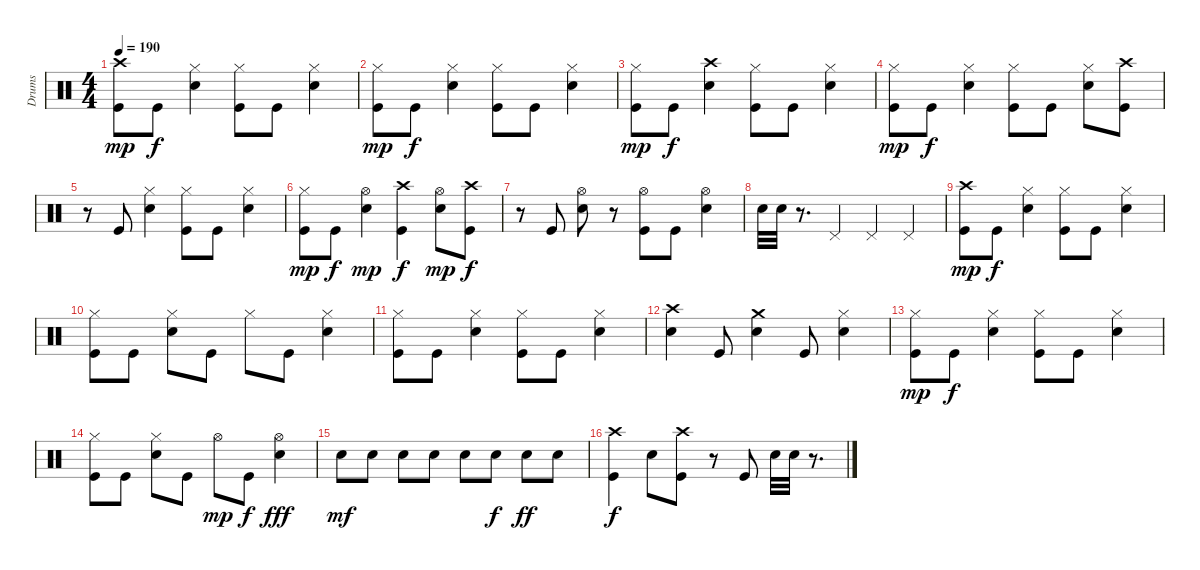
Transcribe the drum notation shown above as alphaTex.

\track ("Drums" "Drums") {instrument percussion}
\staff {score}
\articulation defaults
\ts (4 4)
\tempo 190
\clef neutral
\ks c
("Crash high (hit)" "Kick (hit)").8{dy mp} "Kick (hit)".8{dy f} ("Hi-Hat (closed)" "Snare (hit) 2").4 ("Hi-Hat (closed)" "Kick (hit)").8 "Kick (hit)".8 ("Hi-Hat (closed)" "Snare (hit) 2").4 |
("Hi-Hat (closed)" "Kick (hit)").8{dy mp} "Kick (hit)".8{dy f} ("Hi-Hat (closed)" "Snare (hit) 2").4 ("Hi-Hat (closed)" "Kick (hit)").8 "Kick (hit)".8 ("Hi-Hat (closed)" "Snare (hit) 2").4 |
("Hi-Hat (closed)" "Kick (hit)").8{dy mp} "Kick (hit)".8{dy f} ("Crash high (hit)" "Snare (hit) 2").4 ("Hi-Hat (closed)" "Kick (hit)").8 "Kick (hit)".8 ("Hi-Hat (closed)" "Snare (hit) 2").4 |
("Hi-Hat (closed)" "Kick (hit)").8{dy mp} "Kick (hit)".8{dy f} ("Hi-Hat (closed)" "Snare (hit) 2").4 ("Hi-Hat (closed)" "Kick (hit)").8 "Kick (hit)".8 ("Hi-Hat (closed)" "Snare (hit) 2").8 ("Crash high (hit)" "Kick (hit)").8 |
r.8 "Kick (hit)".8 ("Hi-Hat (closed)" "Snare (hit) 2").4 ("Hi-Hat (closed)" "Kick (hit)").8 "Kick (hit)".8 ("Hi-Hat (closed)" "Snare (hit) 2").4 |
("Hi-Hat (closed)" "Kick (hit)").8{dy mp} "Kick (hit)".8{dy f} ("Hi-Hat (open)" "Snare (hit) 2").4{dy mp} ("Crash high (hit)" "Kick (hit)").4{dy f} ("Hi-Hat (open)" "Snare (hit) 2").8{dy mp} ("Crash high (hit)" "Kick (hit)").8{dy f} |
r.8 "Kick (hit)".8 ("Hi-Hat (open)" "Snare (hit) 2").8 r.8 ("Hi-Hat (open)" "Kick (hit)").8 "Kick (hit)".8 ("Hi-Hat (open)" "Snare (hit) 2").4 |
"Snare (hit) 2".32 "Snare (hit) 2".32 r.8{d} "Pedal Hi-Hat (hit)".4 "Pedal Hi-Hat (hit)".4 "Pedal Hi-Hat (hit)".4 |
("Crash high (hit)" "Kick (hit)").8{dy mp} "Kick (hit)".8{dy f} ("Hi-Hat (closed)" "Snare (hit) 2").4 ("Hi-Hat (closed)" "Kick (hit)").8 "Kick (hit)".8 ("Hi-Hat (closed)" "Snare (hit) 2").4 |
("Hi-Hat (closed)" "Kick (hit)").8 "Kick (hit)".8 ("Hi-Hat (closed)" "Snare (hit) 2").8 "Kick (hit)".8 "Hi-Hat (closed)".8 "Kick (hit)".8 ("Hi-Hat (closed)" "Snare (hit) 2").4 |
("Hi-Hat (closed)" "Kick (hit)").8 "Kick (hit)".8 ("Hi-Hat (closed)" "Snare (hit) 2").4 ("Hi-Hat (closed)" "Kick (hit)").8 "Kick (hit)".8 ("Hi-Hat (closed)" "Snare (hit) 2").4 |
("Crash high (hit)" "Snare (hit) 2").4 "Kick (hit)".8 ("Crash medium (hit)" "Snare (hit) 2").4 "Kick (hit)".8 ("Hi-Hat (closed)" "Snare (hit) 2").4 |
("Hi-Hat (closed)" "Kick (hit)").8{dy mp} "Kick (hit)".8{dy f} ("Hi-Hat (closed)" "Snare (hit) 2").4 ("Hi-Hat (closed)" "Kick (hit)").8 "Kick (hit)".8 ("Hi-Hat (closed)" "Snare (hit) 2").4 |
("Hi-Hat (closed)" "Kick (hit)").8 "Kick (hit)".8 ("Hi-Hat (closed)" "Snare (hit) 2").8 "Kick (hit)".8 "Hi-Hat (open)".8{dy mp} "Kick (hit)".8{dy f} ("Hi-Hat (open)" "Snare (hit) 2").4{dy fff} |
"Snare (hit) 2".8{dy mf} "Snare (hit) 2".8 "Snare (hit) 2".8 "Snare (hit) 2".8 "Snare (hit) 2".8 "Snare (hit) 2".8{dy f} "Snare (hit) 2".8{dy ff} "Snare (hit) 2".8 |
("Crash high (hit)" "Kick (hit)").4{dy f} "Snare (hit) 2".8 ("Crash high (hit)" "Kick (hit)").8 r.8 "Kick (hit)".8 "Snare (hit) 2".32 "Snare (hit) 2".32 r.8{d}
